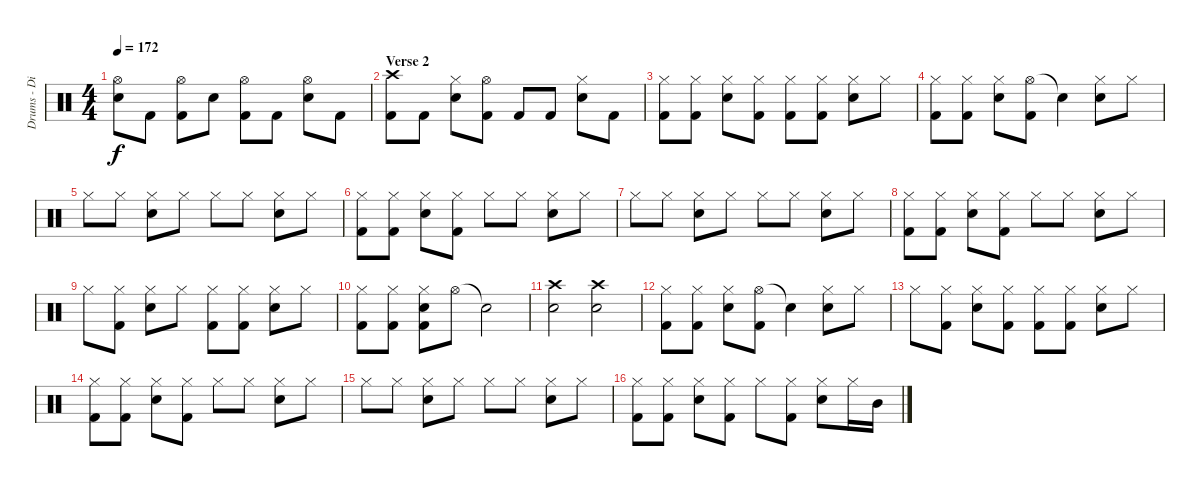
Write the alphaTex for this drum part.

\track ("Drums - Dino Campanella" "Drums - Di") {instrument percussion}
\staff {score}
\articulation defaults
\ts (4 4)
\tempo 172
\clef neutral
\ks c
("Hi-Hat (open)" "Electric Snare (hit)").8{dy f} "Kick (hit) 2".8 ("Hi-Hat (open)" "Kick (hit) 2").8 "Electric Snare (hit)".8 ("Hi-Hat (open)" "Kick (hit) 2").8 "Kick (hit) 2".8 ("Hi-Hat (open)" "Electric Snare (hit)").8 "Kick (hit) 2".8 |
\section ("" "Verse 2")
("Crash high (hit)" "Kick (hit) 2").8 "Kick (hit) 2".8 ("Hi-Hat (closed)" "Electric Snare (hit)").8 ("Hi-Hat (open)" "Kick (hit) 2").8 "Kick (hit) 2".8 "Kick (hit) 2".8 ("Hi-Hat (closed)" "Electric Snare (hit)").8 "Kick (hit) 2".8 |
("Hi-Hat (closed)" "Kick (hit) 2").8 ("Hi-Hat (closed)" "Kick (hit) 2").8 ("Hi-Hat (closed)" "Electric Snare (hit)").8 ("Hi-Hat (closed)" "Kick (hit) 2").8 ("Hi-Hat (closed)" "Kick (hit) 2").8 ("Hi-Hat (closed)" "Kick (hit) 2").8 ("Hi-Hat (closed)" "Electric Snare (hit)").8 "Hi-Hat (closed)".8 |
("Hi-Hat (closed)" "Kick (hit) 2").8 ("Hi-Hat (closed)" "Kick (hit) 2").8 ("Hi-Hat (closed)" "Electric Snare (hit)").8 ("Hi-Hat (open)" "Kick (hit) 2").8 "Snare (hit)"{t}.4 ("Hi-Hat (closed)" "Electric Snare (hit)").8 "Hi-Hat (closed)".8 |
"Hi-Hat (closed)".8 "Hi-Hat (closed)".8 ("Hi-Hat (closed)" "Electric Snare (hit)").8 "Hi-Hat (closed)".8 "Hi-Hat (closed)".8 "Hi-Hat (closed)".8 ("Hi-Hat (closed)" "Electric Snare (hit)").8 "Hi-Hat (closed)".8 |
("Hi-Hat (closed)" "Kick (hit) 2").8 ("Hi-Hat (closed)" "Kick (hit) 2").8 ("Hi-Hat (closed)" "Electric Snare (hit)").8 ("Hi-Hat (closed)" "Kick (hit) 2").8 "Hi-Hat (closed)".8 "Hi-Hat (closed)".8 ("Hi-Hat (closed)" "Electric Snare (hit)").8 "Hi-Hat (closed)".8 |
"Hi-Hat (closed)".8 "Hi-Hat (closed)".8 ("Hi-Hat (closed)" "Electric Snare (hit)").8 "Hi-Hat (closed)".8 "Hi-Hat (closed)".8 "Hi-Hat (closed)".8 ("Hi-Hat (closed)" "Electric Snare (hit)").8 "Hi-Hat (closed)".8 |
("Hi-Hat (closed)" "Kick (hit) 2").8 ("Hi-Hat (closed)" "Kick (hit) 2").8 ("Hi-Hat (closed)" "Electric Snare (hit)").8 ("Hi-Hat (closed)" "Kick (hit) 2").8 "Hi-Hat (closed)".8 "Hi-Hat (closed)".8 ("Hi-Hat (closed)" "Electric Snare (hit)").8 "Hi-Hat (closed)".8 |
"Hi-Hat (closed)".8 ("Hi-Hat (closed)" "Kick (hit) 2").8 ("Hi-Hat (closed)" "Electric Snare (hit)").8 "Hi-Hat (closed)".8 ("Hi-Hat (closed)" "Kick (hit) 2").8 ("Hi-Hat (closed)" "Kick (hit) 2").8 ("Hi-Hat (closed)" "Electric Snare (hit)").8 "Hi-Hat (closed)".8 |
("Hi-Hat (closed)" "Kick (hit) 2").8 ("Hi-Hat (closed)" "Kick (hit) 2").8 ("Hi-Hat (closed)" "Electric Snare (hit)" "Kick (hit) 2").8 "Hi-Hat (open)".8 "Snare (hit)"{t}.2 |
("Crash high (hit)" "Electric Snare (hit)").2 ("Crash high (hit)" "Electric Snare (hit)").2 |
("Hi-Hat (closed)" "Kick (hit) 2").8 ("Hi-Hat (closed)" "Kick (hit) 2").8 ("Hi-Hat (closed)" "Electric Snare (hit)").8 ("Hi-Hat (open)" "Kick (hit) 2").8 "Snare (hit)"{t}.4 ("Hi-Hat (closed)" "Electric Snare (hit)").8 "Hi-Hat (closed)".8 |
"Hi-Hat (closed)".8 ("Hi-Hat (closed)" "Kick (hit) 2").8 ("Hi-Hat (closed)" "Electric Snare (hit)").8 ("Hi-Hat (closed)" "Kick (hit) 2").8 ("Hi-Hat (closed)" "Kick (hit) 2").8 ("Hi-Hat (closed)" "Kick (hit) 2").8 ("Hi-Hat (closed)" "Electric Snare (hit)").8 "Hi-Hat (closed)".8 |
("Hi-Hat (closed)" "Kick (hit) 2").8 ("Hi-Hat (closed)" "Kick (hit) 2").8 ("Hi-Hat (closed)" "Electric Snare (hit)").8 ("Hi-Hat (closed)" "Kick (hit) 2").8 "Hi-Hat (closed)".8 "Hi-Hat (closed)".8 ("Hi-Hat (closed)" "Electric Snare (hit)").8 "Hi-Hat (closed)".8 |
"Hi-Hat (closed)".8 "Hi-Hat (closed)".8 ("Hi-Hat (closed)" "Electric Snare (hit)").8 "Hi-Hat (closed)".8 "Hi-Hat (closed)".8 "Hi-Hat (closed)".8 ("Hi-Hat (closed)" "Electric Snare (hit)").8 "Hi-Hat (closed)".8 |
("Hi-Hat (closed)" "Kick (hit) 2").8 ("Hi-Hat (closed)" "Kick (hit) 2").8 ("Hi-Hat (closed)" "Electric Snare (hit)").8 ("Hi-Hat (closed)" "Kick (hit) 2").8 "Hi-Hat (closed)".8 ("Hi-Hat (closed)" "Kick (hit) 2").8 ("Hi-Hat (closed)" "Electric Snare (hit)").8 "Hi-Hat (closed)".16 "Mid Tom (hit)".16
